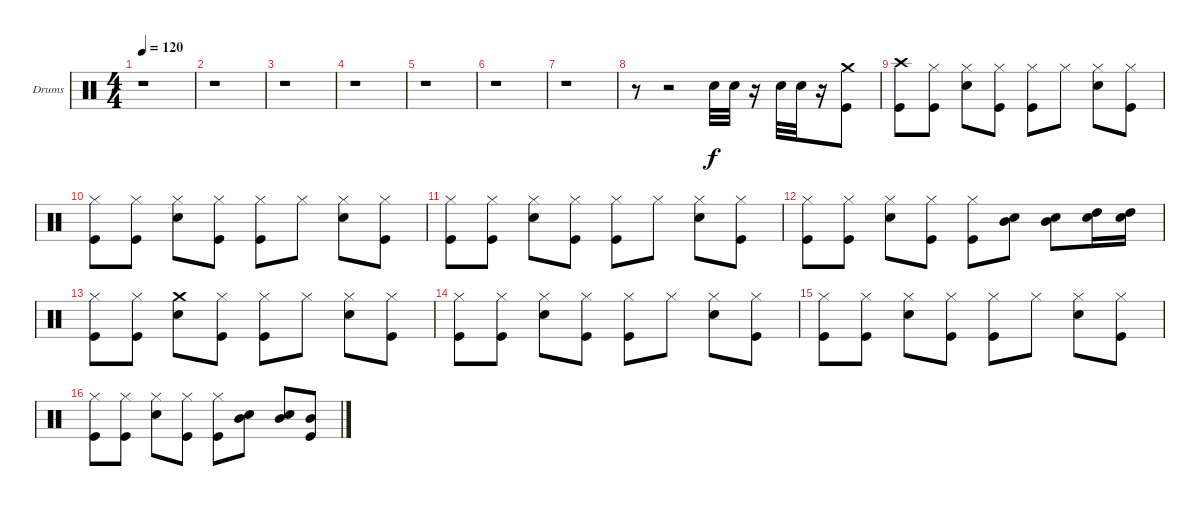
\defaultSystemsLayout 4
\bracketExtendMode groupsimilarinstruments
\firstSystemTrackNameOrientation horizontal
\otherSystemsTrackNameOrientation horizontal
\track ("Stefan Schwarzmann" "Drums") {instrument percussion}
\staff {score}
\articulation defaults
\ts (4 4)
\tempo 120
\clef neutral
\ks c
r.1{dy f} |
r.1 |
r.1 |
r.1 |
r.1 |
r.1 |
r.1 |
r.8 r.2 "Snare (hit) 2".32 "Snare (hit) 2".32 r.16 "Snare (hit) 2".32 "Snare (hit) 2".32 r.16 ("Kick (hit)" "Crash medium (hit)").8 |
("Kick (hit)" "Crash high (hit)").8 ("Hi-Hat (closed)" "Kick (hit)").8 ("Hi-Hat (closed)" "Snare (hit) 2").8 ("Hi-Hat (closed)" "Kick (hit)").8 ("Hi-Hat (closed)" "Kick (hit)").8 "Hi-Hat (closed)".8 ("Hi-Hat (closed)" "Snare (hit) 2").8 ("Hi-Hat (closed)" "Kick (hit)").8 |
("Hi-Hat (closed)" "Kick (hit)").8 ("Hi-Hat (closed)" "Kick (hit)").8 ("Hi-Hat (closed)" "Snare (hit) 2").8 ("Hi-Hat (closed)" "Kick (hit)").8 ("Hi-Hat (closed)" "Kick (hit)").8 "Hi-Hat (closed)".8 ("Hi-Hat (closed)" "Snare (hit) 2").8 ("Hi-Hat (closed)" "Kick (hit)").8 |
("Hi-Hat (closed)" "Kick (hit)").8 ("Hi-Hat (closed)" "Kick (hit)").8 ("Hi-Hat (closed)" "Snare (hit) 2").8 ("Hi-Hat (closed)" "Kick (hit)").8 ("Hi-Hat (closed)" "Kick (hit)").8 "Hi-Hat (closed)".8 ("Hi-Hat (closed)" "Snare (hit) 2").8 ("Hi-Hat (closed)" "Kick (hit)").8 |
("Hi-Hat (closed)" "Kick (hit)").8 ("Hi-Hat (closed)" "Kick (hit)").8 ("Hi-Hat (closed)" "Snare (hit) 2").8 ("Hi-Hat (closed)" "Kick (hit)").8 ("Hi-Hat (closed)" "Kick (hit)").8 ("Mid Tom (hit)" "Snare (hit) 2").8 ("Mid Tom (hit)" "Snare (hit) 2").8 ("High Tom (hit)" "Snare (hit) 2").16 ("High Tom (hit)" "Snare (hit) 2").16 |
("Hi-Hat (closed)" "Kick (hit)").8 ("Hi-Hat (closed)" "Kick (hit)").8 ("Crash medium (hit)" "Snare (hit) 2").8 ("Hi-Hat (closed)" "Kick (hit)").8 ("Hi-Hat (closed)" "Kick (hit)").8 "Hi-Hat (closed)".8 ("Hi-Hat (closed)" "Snare (hit) 2").8 ("Hi-Hat (closed)" "Kick (hit)").8 |
("Hi-Hat (closed)" "Kick (hit)").8 ("Hi-Hat (closed)" "Kick (hit)").8 ("Hi-Hat (closed)" "Snare (hit) 2").8 ("Hi-Hat (closed)" "Kick (hit)").8 ("Hi-Hat (closed)" "Kick (hit)").8 "Hi-Hat (closed)".8 ("Hi-Hat (closed)" "Snare (hit) 2").8 ("Hi-Hat (closed)" "Kick (hit)").8 |
("Hi-Hat (closed)" "Kick (hit)").8 ("Hi-Hat (closed)" "Kick (hit)").8 ("Hi-Hat (closed)" "Snare (hit) 2").8 ("Hi-Hat (closed)" "Kick (hit)").8 ("Hi-Hat (closed)" "Kick (hit)").8 "Hi-Hat (closed)".8 ("Hi-Hat (closed)" "Snare (hit) 2").8 ("Hi-Hat (closed)" "Kick (hit)").8 |
("Hi-Hat (closed)" "Kick (hit)").8 ("Hi-Hat (closed)" "Kick (hit)").8 ("Hi-Hat (closed)" "Snare (hit) 2").8 ("Hi-Hat (closed)" "Kick (hit)").8 ("Hi-Hat (closed)" "Kick (hit)").8 ("Mid Tom (hit)" "Snare (hit) 2").8 ("Mid Tom (hit)" "Snare (hit) 2").8 ("Mid Tom (hit)" "Kick (hit)").8
